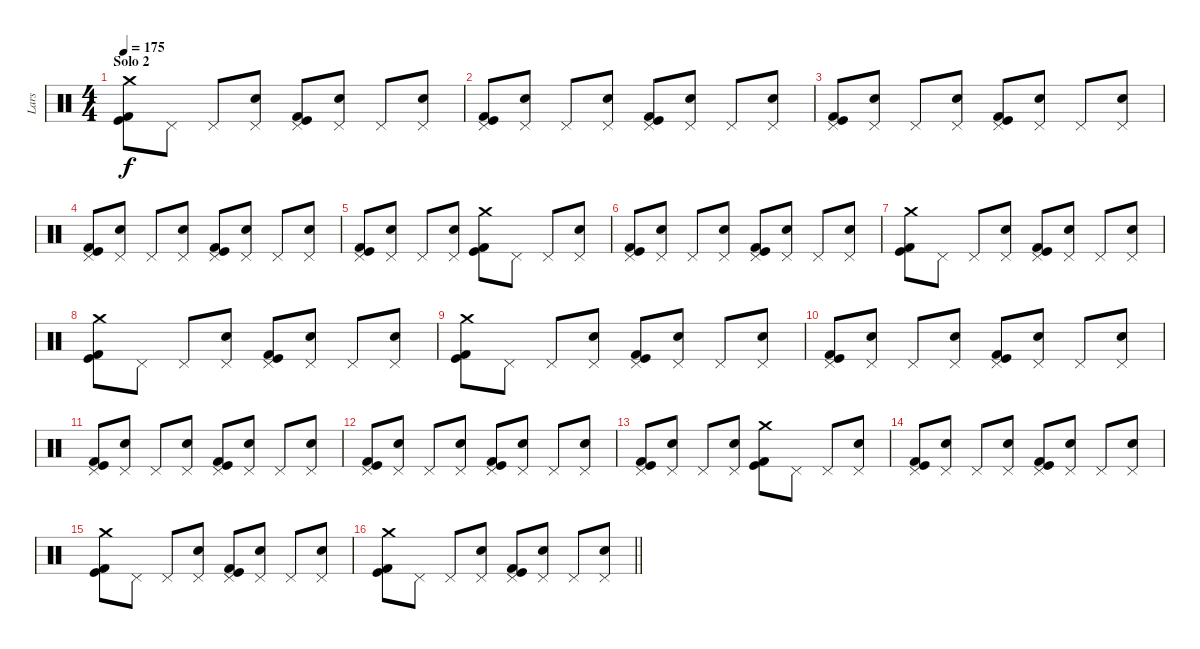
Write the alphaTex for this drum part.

\track ("Lars" "Lars") {instrument percussion}
\staff {score}
\articulation defaults
\ts (4 4)
\section ("" "Solo 2")
\tempo 175
\clef neutral
\ks c
("Crash medium (hit)" "Kick (hit)" "Kick (hit) 2").8{dy f} "Pedal Hi-Hat (hit)".8 "Pedal Hi-Hat (hit)".8 ("Pedal Hi-Hat (hit)" "Electric Snare (hit)").8 ("Pedal Hi-Hat (hit)" "Kick (hit)" "Kick (hit) 2").8 ("Pedal Hi-Hat (hit)" "Electric Snare (hit)").8 "Pedal Hi-Hat (hit)".8 ("Pedal Hi-Hat (hit)" "Electric Snare (hit)").8 |
("Pedal Hi-Hat (hit)" "Kick (hit)" "Kick (hit) 2").8 ("Pedal Hi-Hat (hit)" "Electric Snare (hit)").8 "Pedal Hi-Hat (hit)".8 ("Pedal Hi-Hat (hit)" "Electric Snare (hit)").8 ("Pedal Hi-Hat (hit)" "Kick (hit)" "Kick (hit) 2").8 ("Pedal Hi-Hat (hit)" "Electric Snare (hit)").8 "Pedal Hi-Hat (hit)".8 ("Pedal Hi-Hat (hit)" "Electric Snare (hit)").8 |
("Pedal Hi-Hat (hit)" "Kick (hit)" "Kick (hit) 2").8 ("Pedal Hi-Hat (hit)" "Electric Snare (hit)").8 "Pedal Hi-Hat (hit)".8 ("Pedal Hi-Hat (hit)" "Electric Snare (hit)").8 ("Pedal Hi-Hat (hit)" "Kick (hit)" "Kick (hit) 2").8 ("Pedal Hi-Hat (hit)" "Electric Snare (hit)").8 "Pedal Hi-Hat (hit)".8 ("Pedal Hi-Hat (hit)" "Electric Snare (hit)").8 |
("Pedal Hi-Hat (hit)" "Kick (hit)" "Kick (hit) 2").8 ("Pedal Hi-Hat (hit)" "Electric Snare (hit)").8 "Pedal Hi-Hat (hit)".8 ("Pedal Hi-Hat (hit)" "Electric Snare (hit)").8 ("Pedal Hi-Hat (hit)" "Kick (hit)" "Kick (hit) 2").8 ("Pedal Hi-Hat (hit)" "Electric Snare (hit)").8 "Pedal Hi-Hat (hit)".8 ("Pedal Hi-Hat (hit)" "Electric Snare (hit)").8 |
("Pedal Hi-Hat (hit)" "Kick (hit)" "Kick (hit) 2").8 ("Pedal Hi-Hat (hit)" "Electric Snare (hit)").8 "Pedal Hi-Hat (hit)".8 ("Pedal Hi-Hat (hit)" "Electric Snare (hit)").8 ("Crash medium (hit)" "Kick (hit)" "Kick (hit) 2").8 "Pedal Hi-Hat (hit)".8 "Pedal Hi-Hat (hit)".8 ("Pedal Hi-Hat (hit)" "Electric Snare (hit)").8 |
("Pedal Hi-Hat (hit)" "Kick (hit)" "Kick (hit) 2").8 ("Pedal Hi-Hat (hit)" "Electric Snare (hit)").8 "Pedal Hi-Hat (hit)".8 ("Pedal Hi-Hat (hit)" "Electric Snare (hit)").8 ("Pedal Hi-Hat (hit)" "Kick (hit)" "Kick (hit) 2").8 ("Pedal Hi-Hat (hit)" "Electric Snare (hit)").8 "Pedal Hi-Hat (hit)".8 ("Pedal Hi-Hat (hit)" "Electric Snare (hit)").8 |
("Crash medium (hit)" "Kick (hit)" "Kick (hit) 2").8 "Pedal Hi-Hat (hit)".8 "Pedal Hi-Hat (hit)".8 ("Pedal Hi-Hat (hit)" "Electric Snare (hit)").8 ("Pedal Hi-Hat (hit)" "Kick (hit)" "Kick (hit) 2").8 ("Pedal Hi-Hat (hit)" "Electric Snare (hit)").8 "Pedal Hi-Hat (hit)".8 ("Pedal Hi-Hat (hit)" "Electric Snare (hit)").8 |
("Crash medium (hit)" "Kick (hit)" "Kick (hit) 2").8 "Pedal Hi-Hat (hit)".8 "Pedal Hi-Hat (hit)".8 ("Pedal Hi-Hat (hit)" "Electric Snare (hit)").8 ("Pedal Hi-Hat (hit)" "Kick (hit)" "Kick (hit) 2").8 ("Pedal Hi-Hat (hit)" "Electric Snare (hit)").8 "Pedal Hi-Hat (hit)".8 ("Pedal Hi-Hat (hit)" "Electric Snare (hit)").8 |
("Crash medium (hit)" "Kick (hit)" "Kick (hit) 2").8 "Pedal Hi-Hat (hit)".8 "Pedal Hi-Hat (hit)".8 ("Pedal Hi-Hat (hit)" "Electric Snare (hit)").8 ("Pedal Hi-Hat (hit)" "Kick (hit)" "Kick (hit) 2").8 ("Pedal Hi-Hat (hit)" "Electric Snare (hit)").8 "Pedal Hi-Hat (hit)".8 ("Pedal Hi-Hat (hit)" "Electric Snare (hit)").8 |
("Pedal Hi-Hat (hit)" "Kick (hit)" "Kick (hit) 2").8 ("Pedal Hi-Hat (hit)" "Electric Snare (hit)").8 "Pedal Hi-Hat (hit)".8 ("Pedal Hi-Hat (hit)" "Electric Snare (hit)").8 ("Pedal Hi-Hat (hit)" "Kick (hit)" "Kick (hit) 2").8 ("Pedal Hi-Hat (hit)" "Electric Snare (hit)").8 "Pedal Hi-Hat (hit)".8 ("Pedal Hi-Hat (hit)" "Electric Snare (hit)").8 |
("Pedal Hi-Hat (hit)" "Kick (hit)" "Kick (hit) 2").8 ("Pedal Hi-Hat (hit)" "Electric Snare (hit)").8 "Pedal Hi-Hat (hit)".8 ("Pedal Hi-Hat (hit)" "Electric Snare (hit)").8 ("Pedal Hi-Hat (hit)" "Kick (hit)" "Kick (hit) 2").8 ("Pedal Hi-Hat (hit)" "Electric Snare (hit)").8 "Pedal Hi-Hat (hit)".8 ("Pedal Hi-Hat (hit)" "Electric Snare (hit)").8 |
("Pedal Hi-Hat (hit)" "Kick (hit)" "Kick (hit) 2").8 ("Pedal Hi-Hat (hit)" "Electric Snare (hit)").8 "Pedal Hi-Hat (hit)".8 ("Pedal Hi-Hat (hit)" "Electric Snare (hit)").8 ("Pedal Hi-Hat (hit)" "Kick (hit)" "Kick (hit) 2").8 ("Pedal Hi-Hat (hit)" "Electric Snare (hit)").8 "Pedal Hi-Hat (hit)".8 ("Pedal Hi-Hat (hit)" "Electric Snare (hit)").8 |
("Pedal Hi-Hat (hit)" "Kick (hit)" "Kick (hit) 2").8 ("Pedal Hi-Hat (hit)" "Electric Snare (hit)").8 "Pedal Hi-Hat (hit)".8 ("Pedal Hi-Hat (hit)" "Electric Snare (hit)").8 ("Crash medium (hit)" "Kick (hit)" "Kick (hit) 2").8 "Pedal Hi-Hat (hit)".8 "Pedal Hi-Hat (hit)".8 ("Pedal Hi-Hat (hit)" "Electric Snare (hit)").8 |
("Pedal Hi-Hat (hit)" "Kick (hit)" "Kick (hit) 2").8 ("Pedal Hi-Hat (hit)" "Electric Snare (hit)").8 "Pedal Hi-Hat (hit)".8 ("Pedal Hi-Hat (hit)" "Electric Snare (hit)").8 ("Pedal Hi-Hat (hit)" "Kick (hit)" "Kick (hit) 2").8 ("Pedal Hi-Hat (hit)" "Electric Snare (hit)").8 "Pedal Hi-Hat (hit)".8 ("Pedal Hi-Hat (hit)" "Electric Snare (hit)").8 |
("Crash medium (hit)" "Kick (hit)" "Kick (hit) 2").8 "Pedal Hi-Hat (hit)".8 "Pedal Hi-Hat (hit)".8 ("Pedal Hi-Hat (hit)" "Electric Snare (hit)").8 ("Pedal Hi-Hat (hit)" "Kick (hit)" "Kick (hit) 2").8 ("Pedal Hi-Hat (hit)" "Electric Snare (hit)").8 "Pedal Hi-Hat (hit)".8 ("Pedal Hi-Hat (hit)" "Electric Snare (hit)").8 |
\barLineRight lightlight
("Crash medium (hit)" "Kick (hit)" "Kick (hit) 2").8 "Pedal Hi-Hat (hit)".8 "Pedal Hi-Hat (hit)".8 ("Pedal Hi-Hat (hit)" "Electric Snare (hit)").8 ("Pedal Hi-Hat (hit)" "Kick (hit)" "Kick (hit) 2").8 ("Pedal Hi-Hat (hit)" "Electric Snare (hit)").8 "Pedal Hi-Hat (hit)".8 ("Pedal Hi-Hat (hit)" "Electric Snare (hit)").8
